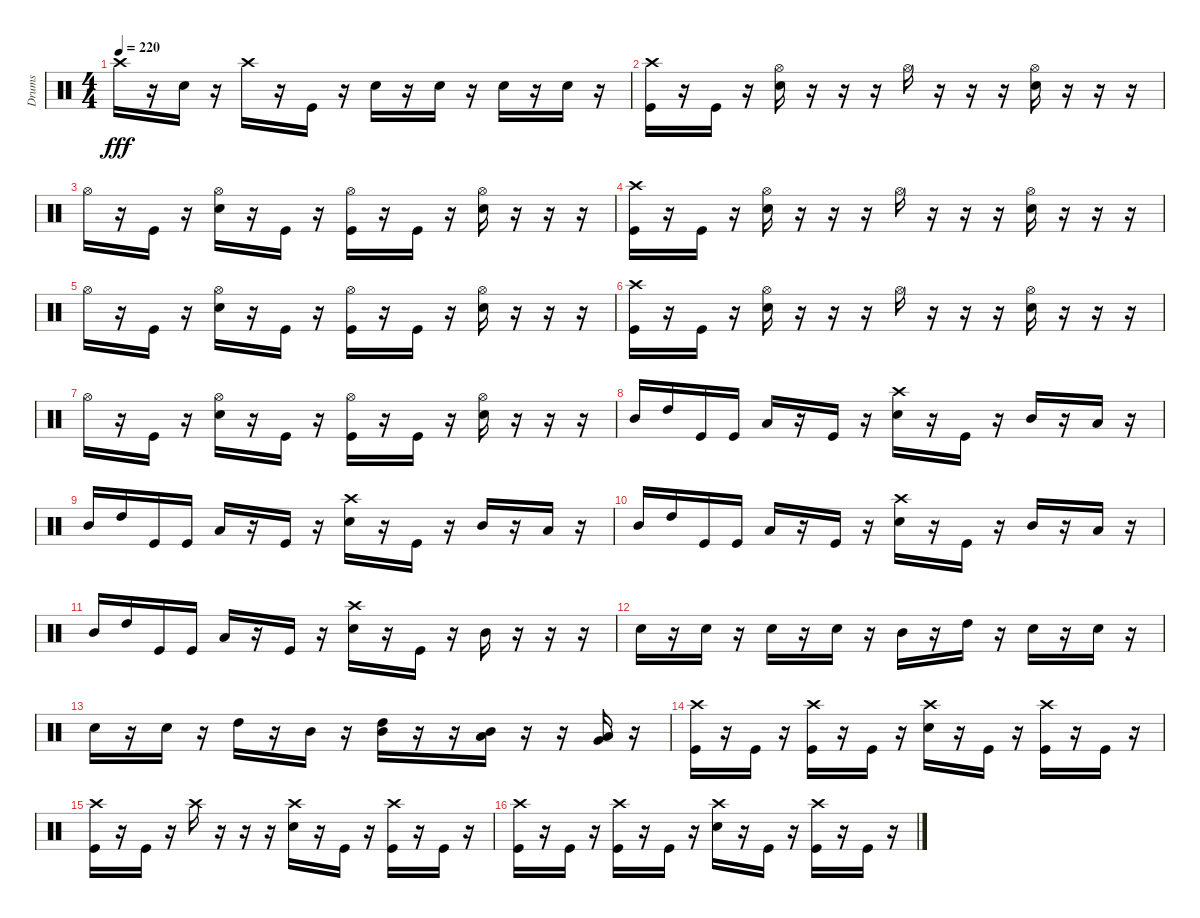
\track ("Drums" "Drums") {instrument percussion}
\staff {score}
\articulation defaults
\ts (4 4)
\tempo 220
\clef neutral
\ks c "Crash high (hit)".16{dy fff}
r.16 "Electric Snare (hit)".16 r.16 "Crash high (hit)".16 r.16 "Kick (hit)".16 r.16 "Electric Snare (hit)".16 r.16 "Electric Snare (hit)".16 r.16 "Electric Snare (hit)".16 r.16 "Electric Snare (hit)".16 r.16 |
("Crash high (hit)" "Kick (hit)").16 r.16 "Kick (hit)".16 r.16 ("Hi-Hat (open)" "Electric Snare (hit)").16 r.16 r.16 r.16 "Hi-Hat (open)".16 r.16 r.16 r.16 ("Hi-Hat (open)" "Electric Snare (hit)").16 r.16 r.16 r.16 |
"Hi-Hat (open)".16 r.16 "Kick (hit)".16 r.16 ("Hi-Hat (open)" "Electric Snare (hit)").16 r.16 "Kick (hit)".16 r.16 ("Hi-Hat (open)" "Kick (hit)").16 r.16 "Kick (hit)".16 r.16 ("Hi-Hat (open)" "Electric Snare (hit)").16 r.16 r.16 r.16 |
("Crash high (hit)" "Kick (hit)").16 r.16 "Kick (hit)".16 r.16 ("Hi-Hat (open)" "Electric Snare (hit)").16 r.16 r.16 r.16 "Hi-Hat (open)".16 r.16 r.16 r.16 ("Hi-Hat (open)" "Electric Snare (hit)").16 r.16 r.16 r.16 |
"Hi-Hat (open)".16 r.16 "Kick (hit)".16 r.16 ("Hi-Hat (open)" "Electric Snare (hit)").16 r.16 "Kick (hit)".16 r.16 ("Hi-Hat (open)" "Kick (hit)").16 r.16 "Kick (hit)".16 r.16 ("Hi-Hat (open)" "Electric Snare (hit)").16 r.16 r.16 r.16 |
("Crash high (hit)" "Kick (hit)").16 r.16 "Kick (hit)".16 r.16 ("Hi-Hat (open)" "Electric Snare (hit)").16 r.16 r.16 r.16 "Hi-Hat (open)".16 r.16 r.16 r.16 ("Hi-Hat (open)" "Electric Snare (hit)").16 r.16 r.16 r.16 |
"Hi-Hat (open)".16 r.16 "Kick (hit)".16 r.16 ("Hi-Hat (open)" "Electric Snare (hit)").16 r.16 "Kick (hit)".16 r.16 ("Hi-Hat (open)" "Kick (hit)").16 r.16 "Kick (hit)".16 r.16 ("Hi-Hat (open)" "Electric Snare (hit)").16 r.16 r.16 r.16 |
"Mid Tom (hit)".16 "High Tom (hit)".16 "Kick (hit)".16 "Kick (hit)".16 "Low Tom (hit)".16 r.16 "Kick (hit)".16 r.16 ("Crash high (hit)" "Electric Snare (hit)").16 r.16 "Kick (hit)".16 r.16 "Mid Tom (hit)".16 r.16 "Low Tom (hit)".16 r.16 |
"Mid Tom (hit)".16 "High Tom (hit)".16 "Kick (hit)".16 "Kick (hit)".16 "Low Tom (hit)".16 r.16 "Kick (hit)".16 r.16 ("Crash high (hit)" "Electric Snare (hit)").16 r.16 "Kick (hit)".16 r.16 "Mid Tom (hit)".16 r.16 "Low Tom (hit)".16 r.16 |
"Mid Tom (hit)".16 "High Tom (hit)".16 "Kick (hit)".16 "Kick (hit)".16 "Low Tom (hit)".16 r.16 "Kick (hit)".16 r.16 ("Crash high (hit)" "Electric Snare (hit)").16 r.16 "Kick (hit)".16 r.16 "Mid Tom (hit)".16 r.16 "Low Tom (hit)".16 r.16 |
"Mid Tom (hit)".16 "High Tom (hit)".16 "Kick (hit)".16 "Kick (hit)".16 "Low Tom (hit)".16 r.16 "Kick (hit)".16 r.16 ("Crash high (hit)" "Electric Snare (hit)").16 r.16 "Kick (hit)".16 r.16 "Mid Tom (hit)".16 r.16 r.16 r.16 |
"Electric Snare (hit)".16 r.16 "Electric Snare (hit)".16 r.16 "Electric Snare (hit)".16 r.16 "Electric Snare (hit)".16 r.16 "Mid Tom (hit)".16 r.16 "High Tom (hit)".16 r.16 "Electric Snare (hit)".16 r.16 "Electric Snare (hit)".16 r.16 |
"Electric Snare (hit)".16 r.16 "Electric Snare (hit)".16 r.16 "High Tom (hit)".16 r.16 "Mid Tom (hit)".16 r.16 ("High Tom (hit)" "Mid Tom (hit)").16 r.16 r.16 ("Mid Tom (hit)" "Low Tom (hit)").16 r.16 r.16 ("Low Tom (hit)" "Very Low Tom (hit)").16 r.16 |
("Crash high (hit)" "Kick (hit)").16 r.16 "Kick (hit)".16 r.16 ("Crash high (hit)" "Kick (hit)").16 r.16 "Kick (hit)".16 r.16 ("Crash high (hit)" "Electric Snare (hit)").16 r.16 "Kick (hit)".16 r.16 ("Crash high (hit)" "Kick (hit)").16 r.16 "Kick (hit)".16 r.16 |
("Crash high (hit)" "Kick (hit)").16 r.16 "Kick (hit)".16 r.16 "Crash high (hit)".16 r.16 r.16 r.16 ("Crash high (hit)" "Electric Snare (hit)").16 r.16 "Kick (hit)".16 r.16 ("Crash high (hit)" "Kick (hit)").16 r.16 "Kick (hit)".16 r.16 |
("Crash high (hit)" "Kick (hit)").16 r.16 "Kick (hit)".16 r.16 ("Crash high (hit)" "Kick (hit)").16 r.16 "Kick (hit)".16 r.16 ("Crash high (hit)" "Electric Snare (hit)").16 r.16 "Kick (hit)".16 r.16 ("Crash high (hit)" "Kick (hit)").16 r.16 "Kick (hit)".16 r.16
